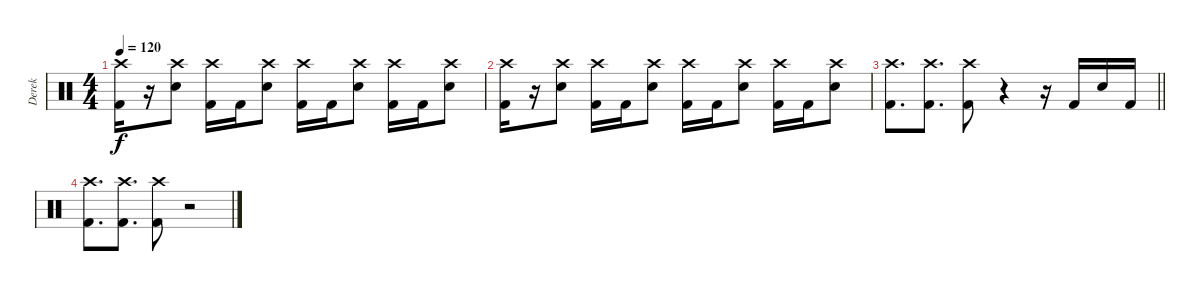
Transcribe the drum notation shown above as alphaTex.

\track ("Derek" "Derek") {instrument percussion}
\staff {score}
\articulation defaults
\ts (4 4)
\tempo 120
\clef neutral
\ks c
("Crash high (hit)" "Kick (hit) 2").16{dy f} r.16 ("Crash high (hit)" "Electric Snare (hit)").8 ("Crash high (hit)" "Kick (hit) 2").16 "Kick (hit) 2".16 ("Crash high (hit)" "Electric Snare (hit)").8 ("Crash high (hit)" "Kick (hit) 2").16 "Kick (hit) 2".16 ("Crash high (hit)" "Electric Snare (hit)").8 ("Crash high (hit)" "Kick (hit) 2").16 "Kick (hit) 2".16 ("Crash high (hit)" "Electric Snare (hit)").8 |
("Crash high (hit)" "Kick (hit) 2").16 r.16 ("Crash high (hit)" "Electric Snare (hit)").8 ("Crash high (hit)" "Kick (hit) 2").16 "Kick (hit) 2".16 ("Crash high (hit)" "Electric Snare (hit)").8 ("Crash high (hit)" "Kick (hit) 2").16 "Kick (hit) 2".16 ("Crash high (hit)" "Electric Snare (hit)").8 ("Crash high (hit)" "Kick (hit) 2").16 "Kick (hit) 2".16 ("Crash high (hit)" "Electric Snare (hit)").8 |
\barLineRight lightlight
("Crash high (hit)" "Kick (hit) 2").8{d} ("Crash high (hit)" "Kick (hit) 2").8{d} ("Crash high (hit)" "Kick (hit) 2").8 r.4 r.16 "Kick (hit) 2".16 "Electric Snare (hit)".16 "Kick (hit) 2".16 |
("Crash high (hit)" "Kick (hit) 2").8{d} ("Crash high (hit)" "Kick (hit) 2").8{d} ("Crash high (hit)" "Kick (hit) 2").8 r.2
